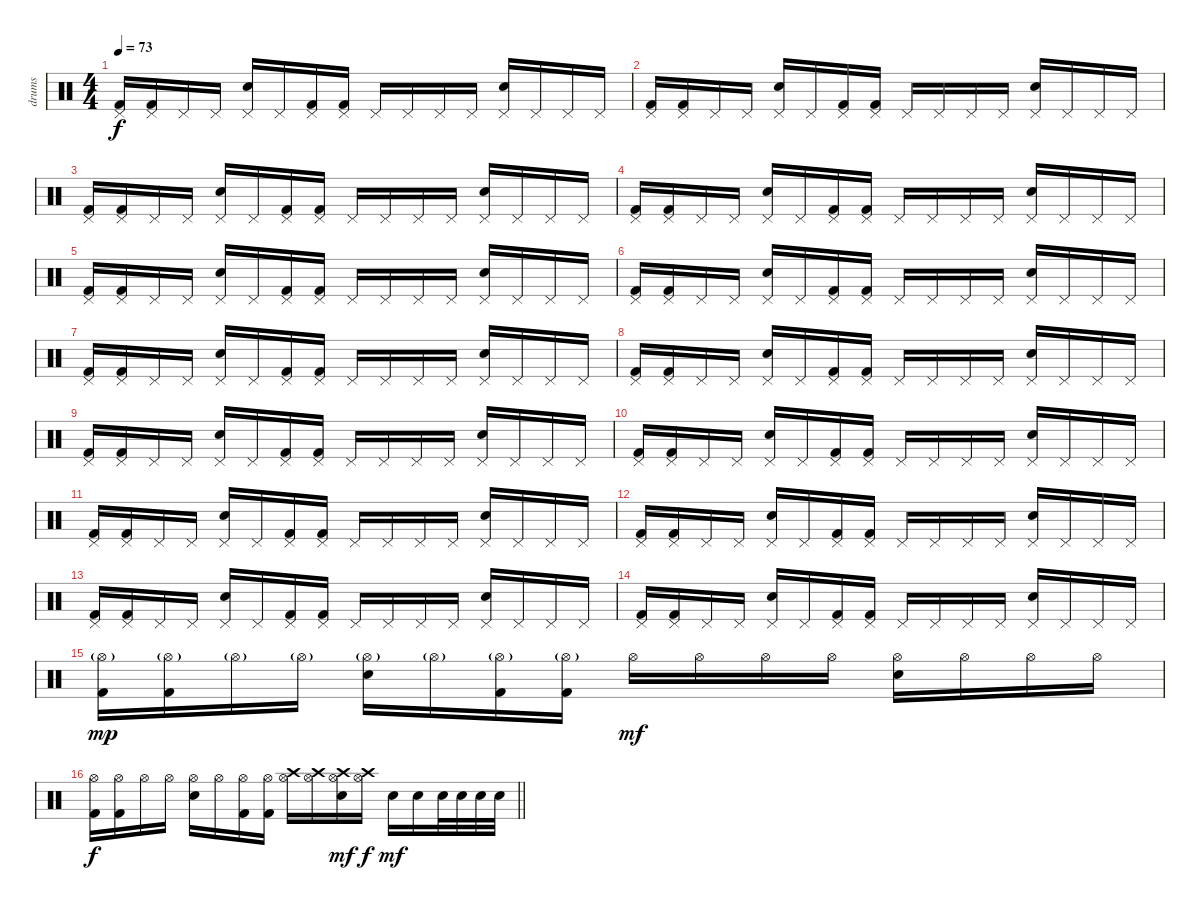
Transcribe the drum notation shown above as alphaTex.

\track ("drums" "drums") {instrument percussion}
\staff {score}
\articulation defaults
\ts (4 4)
\tempo 73
\clef neutral
\ks c
("Kick (hit) 2" "Pedal Hi-Hat (hit)").16{dy f} ("Kick (hit) 2" "Pedal Hi-Hat (hit)").16 "Pedal Hi-Hat (hit)".16 "Pedal Hi-Hat (hit)".16 ("Electric Snare (hit)" "Pedal Hi-Hat (hit)").16 "Pedal Hi-Hat (hit)".16 ("Kick (hit) 2" "Pedal Hi-Hat (hit)").16 ("Kick (hit) 2" "Pedal Hi-Hat (hit)").16 "Pedal Hi-Hat (hit)".16 "Pedal Hi-Hat (hit)".16 "Pedal Hi-Hat (hit)".16 "Pedal Hi-Hat (hit)".16 ("Electric Snare (hit)" "Pedal Hi-Hat (hit)").16 "Pedal Hi-Hat (hit)".16 "Pedal Hi-Hat (hit)".16 "Pedal Hi-Hat (hit)".16 |
("Kick (hit) 2" "Pedal Hi-Hat (hit)").16 ("Kick (hit) 2" "Pedal Hi-Hat (hit)").16 "Pedal Hi-Hat (hit)".16 "Pedal Hi-Hat (hit)".16 ("Electric Snare (hit)" "Pedal Hi-Hat (hit)").16 "Pedal Hi-Hat (hit)".16 ("Kick (hit) 2" "Pedal Hi-Hat (hit)").16 ("Kick (hit) 2" "Pedal Hi-Hat (hit)").16 "Pedal Hi-Hat (hit)".16 "Pedal Hi-Hat (hit)".16 "Pedal Hi-Hat (hit)".16 "Pedal Hi-Hat (hit)".16 ("Electric Snare (hit)" "Pedal Hi-Hat (hit)").16 "Pedal Hi-Hat (hit)".16 "Pedal Hi-Hat (hit)".16 "Pedal Hi-Hat (hit)".16 |
("Kick (hit) 2" "Pedal Hi-Hat (hit)").16 ("Kick (hit) 2" "Pedal Hi-Hat (hit)").16 "Pedal Hi-Hat (hit)".16 "Pedal Hi-Hat (hit)".16 ("Electric Snare (hit)" "Pedal Hi-Hat (hit)").16 "Pedal Hi-Hat (hit)".16 ("Kick (hit) 2" "Pedal Hi-Hat (hit)").16 ("Kick (hit) 2" "Pedal Hi-Hat (hit)").16 "Pedal Hi-Hat (hit)".16 "Pedal Hi-Hat (hit)".16 "Pedal Hi-Hat (hit)".16 "Pedal Hi-Hat (hit)".16 ("Electric Snare (hit)" "Pedal Hi-Hat (hit)").16 "Pedal Hi-Hat (hit)".16 "Pedal Hi-Hat (hit)".16 "Pedal Hi-Hat (hit)".16 |
("Kick (hit) 2" "Pedal Hi-Hat (hit)").16 ("Kick (hit) 2" "Pedal Hi-Hat (hit)").16 "Pedal Hi-Hat (hit)".16 "Pedal Hi-Hat (hit)".16 ("Electric Snare (hit)" "Pedal Hi-Hat (hit)").16 "Pedal Hi-Hat (hit)".16 ("Kick (hit) 2" "Pedal Hi-Hat (hit)").16 ("Kick (hit) 2" "Pedal Hi-Hat (hit)").16 "Pedal Hi-Hat (hit)".16 "Pedal Hi-Hat (hit)".16 "Pedal Hi-Hat (hit)".16 "Pedal Hi-Hat (hit)".16 ("Electric Snare (hit)" "Pedal Hi-Hat (hit)").16 "Pedal Hi-Hat (hit)".16 "Pedal Hi-Hat (hit)".16 "Pedal Hi-Hat (hit)".16 |
("Kick (hit) 2" "Pedal Hi-Hat (hit)").16 ("Kick (hit) 2" "Pedal Hi-Hat (hit)").16 "Pedal Hi-Hat (hit)".16 "Pedal Hi-Hat (hit)".16 ("Electric Snare (hit)" "Pedal Hi-Hat (hit)").16 "Pedal Hi-Hat (hit)".16 ("Kick (hit) 2" "Pedal Hi-Hat (hit)").16 ("Kick (hit) 2" "Pedal Hi-Hat (hit)").16 "Pedal Hi-Hat (hit)".16 "Pedal Hi-Hat (hit)".16 "Pedal Hi-Hat (hit)".16 "Pedal Hi-Hat (hit)".16 ("Electric Snare (hit)" "Pedal Hi-Hat (hit)").16 "Pedal Hi-Hat (hit)".16 "Pedal Hi-Hat (hit)".16 "Pedal Hi-Hat (hit)".16 |
("Kick (hit) 2" "Pedal Hi-Hat (hit)").16 ("Kick (hit) 2" "Pedal Hi-Hat (hit)").16 "Pedal Hi-Hat (hit)".16 "Pedal Hi-Hat (hit)".16 ("Electric Snare (hit)" "Pedal Hi-Hat (hit)").16 "Pedal Hi-Hat (hit)".16 ("Kick (hit) 2" "Pedal Hi-Hat (hit)").16 ("Kick (hit) 2" "Pedal Hi-Hat (hit)").16 "Pedal Hi-Hat (hit)".16 "Pedal Hi-Hat (hit)".16 "Pedal Hi-Hat (hit)".16 "Pedal Hi-Hat (hit)".16 ("Electric Snare (hit)" "Pedal Hi-Hat (hit)").16 "Pedal Hi-Hat (hit)".16 "Pedal Hi-Hat (hit)".16 "Pedal Hi-Hat (hit)".16 |
("Kick (hit) 2" "Pedal Hi-Hat (hit)").16 ("Kick (hit) 2" "Pedal Hi-Hat (hit)").16 "Pedal Hi-Hat (hit)".16 "Pedal Hi-Hat (hit)".16 ("Electric Snare (hit)" "Pedal Hi-Hat (hit)").16 "Pedal Hi-Hat (hit)".16 ("Kick (hit) 2" "Pedal Hi-Hat (hit)").16 ("Kick (hit) 2" "Pedal Hi-Hat (hit)").16 "Pedal Hi-Hat (hit)".16 "Pedal Hi-Hat (hit)".16 "Pedal Hi-Hat (hit)".16 "Pedal Hi-Hat (hit)".16 ("Electric Snare (hit)" "Pedal Hi-Hat (hit)").16 "Pedal Hi-Hat (hit)".16 "Pedal Hi-Hat (hit)".16 "Pedal Hi-Hat (hit)".16 |
("Kick (hit) 2" "Pedal Hi-Hat (hit)").16 ("Kick (hit) 2" "Pedal Hi-Hat (hit)").16 "Pedal Hi-Hat (hit)".16 "Pedal Hi-Hat (hit)".16 ("Electric Snare (hit)" "Pedal Hi-Hat (hit)").16 "Pedal Hi-Hat (hit)".16 ("Kick (hit) 2" "Pedal Hi-Hat (hit)").16 ("Kick (hit) 2" "Pedal Hi-Hat (hit)").16 "Pedal Hi-Hat (hit)".16 "Pedal Hi-Hat (hit)".16 "Pedal Hi-Hat (hit)".16 "Pedal Hi-Hat (hit)".16 ("Electric Snare (hit)" "Pedal Hi-Hat (hit)").16 "Pedal Hi-Hat (hit)".16 "Pedal Hi-Hat (hit)".16 "Pedal Hi-Hat (hit)".16 |
("Kick (hit) 2" "Pedal Hi-Hat (hit)").16 ("Kick (hit) 2" "Pedal Hi-Hat (hit)").16 "Pedal Hi-Hat (hit)".16 "Pedal Hi-Hat (hit)".16 ("Electric Snare (hit)" "Pedal Hi-Hat (hit)").16 "Pedal Hi-Hat (hit)".16 ("Kick (hit) 2" "Pedal Hi-Hat (hit)").16 ("Kick (hit) 2" "Pedal Hi-Hat (hit)").16 "Pedal Hi-Hat (hit)".16 "Pedal Hi-Hat (hit)".16 "Pedal Hi-Hat (hit)".16 "Pedal Hi-Hat (hit)".16 ("Electric Snare (hit)" "Pedal Hi-Hat (hit)").16 "Pedal Hi-Hat (hit)".16 "Pedal Hi-Hat (hit)".16 "Pedal Hi-Hat (hit)".16 |
("Kick (hit) 2" "Pedal Hi-Hat (hit)").16 ("Kick (hit) 2" "Pedal Hi-Hat (hit)").16 "Pedal Hi-Hat (hit)".16 "Pedal Hi-Hat (hit)".16 ("Electric Snare (hit)" "Pedal Hi-Hat (hit)").16 "Pedal Hi-Hat (hit)".16 ("Kick (hit) 2" "Pedal Hi-Hat (hit)").16 ("Kick (hit) 2" "Pedal Hi-Hat (hit)").16 "Pedal Hi-Hat (hit)".16 "Pedal Hi-Hat (hit)".16 "Pedal Hi-Hat (hit)".16 "Pedal Hi-Hat (hit)".16 ("Electric Snare (hit)" "Pedal Hi-Hat (hit)").16 "Pedal Hi-Hat (hit)".16 "Pedal Hi-Hat (hit)".16 "Pedal Hi-Hat (hit)".16 |
("Kick (hit) 2" "Pedal Hi-Hat (hit)").16 ("Kick (hit) 2" "Pedal Hi-Hat (hit)").16 "Pedal Hi-Hat (hit)".16 "Pedal Hi-Hat (hit)".16 ("Electric Snare (hit)" "Pedal Hi-Hat (hit)").16 "Pedal Hi-Hat (hit)".16 ("Kick (hit) 2" "Pedal Hi-Hat (hit)").16 ("Kick (hit) 2" "Pedal Hi-Hat (hit)").16 "Pedal Hi-Hat (hit)".16 "Pedal Hi-Hat (hit)".16 "Pedal Hi-Hat (hit)".16 "Pedal Hi-Hat (hit)".16 ("Electric Snare (hit)" "Pedal Hi-Hat (hit)").16 "Pedal Hi-Hat (hit)".16 "Pedal Hi-Hat (hit)".16 "Pedal Hi-Hat (hit)".16 |
("Kick (hit) 2" "Pedal Hi-Hat (hit)").16 ("Kick (hit) 2" "Pedal Hi-Hat (hit)").16 "Pedal Hi-Hat (hit)".16 "Pedal Hi-Hat (hit)".16 ("Electric Snare (hit)" "Pedal Hi-Hat (hit)").16 "Pedal Hi-Hat (hit)".16 ("Kick (hit) 2" "Pedal Hi-Hat (hit)").16 ("Kick (hit) 2" "Pedal Hi-Hat (hit)").16 "Pedal Hi-Hat (hit)".16 "Pedal Hi-Hat (hit)".16 "Pedal Hi-Hat (hit)".16 "Pedal Hi-Hat (hit)".16 ("Electric Snare (hit)" "Pedal Hi-Hat (hit)").16 "Pedal Hi-Hat (hit)".16 "Pedal Hi-Hat (hit)".16 "Pedal Hi-Hat (hit)".16 |
("Kick (hit) 2" "Pedal Hi-Hat (hit)").16 ("Kick (hit) 2" "Pedal Hi-Hat (hit)").16 "Pedal Hi-Hat (hit)".16 "Pedal Hi-Hat (hit)".16 ("Electric Snare (hit)" "Pedal Hi-Hat (hit)").16 "Pedal Hi-Hat (hit)".16 ("Kick (hit) 2" "Pedal Hi-Hat (hit)").16 ("Kick (hit) 2" "Pedal Hi-Hat (hit)").16 "Pedal Hi-Hat (hit)".16 "Pedal Hi-Hat (hit)".16 "Pedal Hi-Hat (hit)".16 "Pedal Hi-Hat (hit)".16 ("Electric Snare (hit)" "Pedal Hi-Hat (hit)").16 "Pedal Hi-Hat (hit)".16 "Pedal Hi-Hat (hit)".16 "Pedal Hi-Hat (hit)".16 |
("Kick (hit) 2" "Pedal Hi-Hat (hit)").16 ("Kick (hit) 2" "Pedal Hi-Hat (hit)").16 "Pedal Hi-Hat (hit)".16 "Pedal Hi-Hat (hit)".16 ("Electric Snare (hit)" "Pedal Hi-Hat (hit)").16 "Pedal Hi-Hat (hit)".16 ("Kick (hit) 2" "Pedal Hi-Hat (hit)").16 ("Kick (hit) 2" "Pedal Hi-Hat (hit)").16 "Pedal Hi-Hat (hit)".16 "Pedal Hi-Hat (hit)".16 "Pedal Hi-Hat (hit)".16 "Pedal Hi-Hat (hit)".16 ("Electric Snare (hit)" "Pedal Hi-Hat (hit)").16 "Pedal Hi-Hat (hit)".16 "Pedal Hi-Hat (hit)".16 "Pedal Hi-Hat (hit)".16 |
("Kick (hit) 2" "Hi-Hat (open)"{g}).16{dy mp} ("Kick (hit) 2" "Hi-Hat (open)"{g}).16 "Hi-Hat (open)"{g}.16 "Hi-Hat (open)"{g}.16 ("Electric Snare (hit)" "Hi-Hat (open)"{g}).16 "Hi-Hat (open)"{g}.16 ("Kick (hit) 2" "Hi-Hat (open)"{g}).16 ("Kick (hit) 2" "Hi-Hat (open)"{g}).16 "Hi-Hat (open)".16{dy mf} "Hi-Hat (open)".16 "Hi-Hat (open)".16 "Hi-Hat (open)".16 ("Electric Snare (hit)" "Hi-Hat (open)").16 "Hi-Hat (open)".16 "Hi-Hat (open)".16 "Hi-Hat (open)".16 |
\barLineRight lightlight
("Kick (hit) 2" "Hi-Hat (open)").16{dy f} ("Kick (hit) 2" "Hi-Hat (open)").16 "Hi-Hat (open)".16 "Hi-Hat (open)".16 ("Electric Snare (hit)" "Hi-Hat (open)").16 "Hi-Hat (open)".16 ("Kick (hit) 2" "Hi-Hat (open)").16 ("Kick (hit) 2" "Hi-Hat (open)").16 ("Hi-Hat (open)" "Crash high (hit)").16 ("Hi-Hat (open)" "Crash high (hit)").16 ("Electric Snare (hit)" "Hi-Hat (open)" "Crash high (hit)").16{dy mf} ("Hi-Hat (open)" "Crash high (hit)").16{dy f} "Electric Snare (hit)".16{dy mf} "Electric Snare (hit)".16 "Electric Snare (hit)".32 "Electric Snare (hit)".32 "Electric Snare (hit)".32 "Electric Snare (hit)".32
